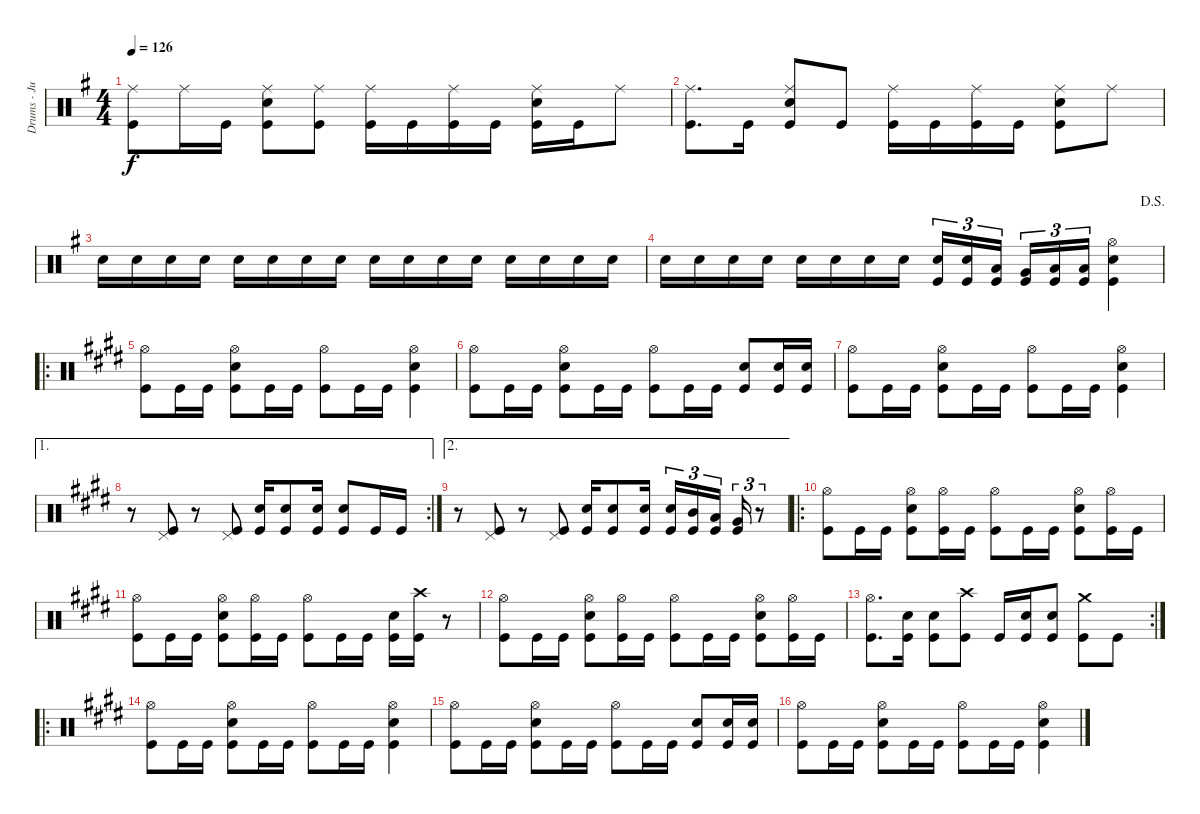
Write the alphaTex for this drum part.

\track ("Drums - Jukka" "Drums - Ju") {instrument percussion}
\staff {score}
\articulation defaults
\ts (4 4)
\tempo 126
\clef neutral
\ks eminor
("Kick (hit)" "Ride (middle)").8{dy f} "Ride (middle)".16 "Kick (hit)".16 ("Kick (hit)" "Snare (hit) 2" "Ride (middle)").8 ("Kick (hit)" "Ride (middle)").8 ("Kick (hit)" "Ride (middle)").16 "Kick (hit)".16 ("Kick (hit)" "Ride (middle)").16 "Kick (hit)".16 ("Kick (hit)" "Snare (hit) 2" "Ride (middle)").16 "Kick (hit)".16 "Ride (middle)".8 |
("Kick (hit)" "Ride (middle)").8{d} "Kick (hit)".16 ("Kick (hit)" "Snare (hit) 2" "Ride (middle)").8 "Kick (hit)".8 ("Kick (hit)" "Ride (middle)").16 "Kick (hit)".16 ("Kick (hit)" "Ride (middle)").16 "Kick (hit)".16 ("Kick (hit)" "Snare (hit) 2" "Ride (middle)").8 "Ride (middle)".8 |
"Snare (hit) 2".16 "Snare (hit) 2".16 "Snare (hit) 2".16 "Snare (hit) 2".16 "Snare (hit) 2".16 "Snare (hit) 2".16 "Snare (hit) 2".16 "Snare (hit) 2".16 "Snare (hit) 2".16 "Snare (hit) 2".16 "Snare (hit) 2".16 "Snare (hit) 2".16 "Snare (hit) 2".16 "Snare (hit) 2".16 "Snare (hit) 2".16 "Snare (hit) 2".16 |
\jump dalsegno "Snare (hit) 2".16 "Snare (hit) 2".16 "Snare (hit) 2".16 "Snare (hit) 2".16 "Snare (hit) 2".16 "Snare (hit) 2".16 "Snare (hit) 2".16 "Snare (hit) 2".16
("Kick (hit)" "Snare (hit) 2").16{tu (3 2)} ("Kick (hit)" "Snare (hit) 2").16{tu (3 2)} ("Kick (hit)" "Low Tom (hit)").16{tu (3 2) beam splitsecondary} ("Kick (hit)" "Very Low Tom (hit)").16{tu (3 2)} ("Kick (hit)" "Low Floor Tom (hit)").16{tu (3 2)} ("Kick (hit)" "Low Floor Tom (hit)").16{tu (3 2)} ("Snare (hit) 2" "Hi-Hat (open)" "Kick (hit)").4 |
\ro
\ks c#minor
("Kick (hit)" "Hi-Hat (open)").8 "Kick (hit)".16 "Kick (hit)".16 ("Kick (hit)" "Snare (hit) 2" "Hi-Hat (open)").8 "Kick (hit)".16 "Kick (hit)".16 ("Kick (hit)" "Hi-Hat (open)").8 "Kick (hit)".16 "Kick (hit)".16 ("Kick (hit)" "Snare (hit) 2" "Hi-Hat (open)").4 |
("Kick (hit)" "Hi-Hat (open)").8 "Kick (hit)".16 "Kick (hit)".16 ("Kick (hit)" "Snare (hit) 2" "Hi-Hat (open)").8 "Kick (hit)".16 "Kick (hit)".16 ("Kick (hit)" "Hi-Hat (open)").8 "Kick (hit)".16 "Kick (hit)".16 ("Kick (hit)" "Snare (hit) 2").8 ("Kick (hit)" "Snare (hit) 2").16 ("Kick (hit)" "Snare (hit) 2").16 |
("Kick (hit)" "Hi-Hat (open)").8 "Kick (hit)".16 "Kick (hit)".16 ("Kick (hit)" "Snare (hit) 2" "Hi-Hat (open)").8 "Kick (hit)".16 "Kick (hit)".16 ("Kick (hit)" "Hi-Hat (open)").8 "Kick (hit)".16 "Kick (hit)".16 ("Kick (hit)" "Snare (hit) 2" "Hi-Hat (open)").4 |
\ae 1
\rc 2
r.8 ("Kick (hit)" "Pedal Hi-Hat (hit)").8 r.8 ("Kick (hit)" "Pedal Hi-Hat (hit)").8 ("Kick (hit)" "Snare (hit) 2").16 ("Kick (hit)" "Snare (hit) 2").8 ("Kick (hit)" "Snare (hit) 2").16 ("Kick (hit)" "Snare (hit) 2").8 "Kick (hit)".16 "Kick (hit)".16 |
\ae 2
r.8 ("Kick (hit)" "Pedal Hi-Hat (hit)").8 r.8 ("Kick (hit)" "Pedal Hi-Hat (hit)").8 ("Kick (hit)" "Snare (hit) 2").16 ("Kick (hit)" "Snare (hit) 2").8 ("Kick (hit)" "Snare (hit) 2").16 ("Kick (hit)" "Snare (hit) 2").16{tu (3 2)} ("Kick (hit)" "Mid Tom (hit)").16{tu (3 2)} ("Kick (hit)" "Low Tom (hit)").16{tu (3 2) beam splitsecondary} ("Kick (hit)" "Very Low Tom (hit)").16{tu (3 2)} r.8{tu (3 2)} |
\ro
("Hi-Hat (open)" "Kick (hit)").8 "Kick (hit)".16 "Kick (hit)".16 ("Hi-Hat (open)" "Snare (hit) 2" "Kick (hit)").8 ("Hi-Hat (open)" "Kick (hit)").16 "Kick (hit)".16 ("Hi-Hat (open)" "Kick (hit)").8 "Kick (hit)".16 "Kick (hit)".16 ("Hi-Hat (open)" "Snare (hit) 2" "Kick (hit)").8 ("Hi-Hat (open)" "Kick (hit)").16 "Kick (hit)".16 |
("Hi-Hat (open)" "Kick (hit)").8 "Kick (hit)".16 "Kick (hit)".16 ("Hi-Hat (open)" "Snare (hit) 2" "Kick (hit)").8 ("Hi-Hat (open)" "Kick (hit)").16 "Kick (hit)".16 ("Hi-Hat (open)" "Kick (hit)").8 "Kick (hit)".16 "Kick (hit)".16 ("Snare (hit) 2" "Kick (hit)").16 ("Crash high (hit)" "Kick (hit)").16 r.8 |
("Hi-Hat (open)" "Kick (hit)").8 "Kick (hit)".16 "Kick (hit)".16 ("Hi-Hat (open)" "Snare (hit) 2" "Kick (hit)").8 ("Hi-Hat (open)" "Kick (hit)").16 "Kick (hit)".16 ("Hi-Hat (open)" "Kick (hit)").8 "Kick (hit)".16 "Kick (hit)".16 ("Hi-Hat (open)" "Snare (hit) 2" "Kick (hit)").8 ("Hi-Hat (open)" "Kick (hit)").16 "Kick (hit)".16 |
\rc 2
("Kick (hit)" "Hi-Hat (open)").8{d} ("Kick (hit)" "Snare (hit) 2").16 ("Kick (hit)" "Snare (hit) 2").8 ("Kick (hit)" "Crash high (hit)").8 "Kick (hit)".16 ("Kick (hit)" "Snare (hit) 2").16 ("Kick (hit)" "Snare (hit) 2").8 ("Kick (hit)" "Crash medium (hit)").8 "Kick (hit)".8 |
\ro
("Kick (hit)" "Hi-Hat (open)").8 "Kick (hit)".16 "Kick (hit)".16 ("Kick (hit)" "Snare (hit) 2" "Hi-Hat (open)").8 "Kick (hit)".16 "Kick (hit)".16 ("Kick (hit)" "Hi-Hat (open)").8 "Kick (hit)".16 "Kick (hit)".16 ("Kick (hit)" "Snare (hit) 2" "Hi-Hat (open)").4 |
("Kick (hit)" "Hi-Hat (open)").8 "Kick (hit)".16 "Kick (hit)".16 ("Kick (hit)" "Snare (hit) 2" "Hi-Hat (open)").8 "Kick (hit)".16 "Kick (hit)".16 ("Kick (hit)" "Hi-Hat (open)").8 "Kick (hit)".16 "Kick (hit)".16 ("Kick (hit)" "Snare (hit) 2").8 ("Kick (hit)" "Snare (hit) 2").16 ("Kick (hit)" "Snare (hit) 2").16 |
("Kick (hit)" "Hi-Hat (open)").8 "Kick (hit)".16 "Kick (hit)".16 ("Kick (hit)" "Snare (hit) 2" "Hi-Hat (open)").8 "Kick (hit)".16 "Kick (hit)".16 ("Kick (hit)" "Hi-Hat (open)").8 "Kick (hit)".16 "Kick (hit)".16 ("Kick (hit)" "Snare (hit) 2" "Hi-Hat (open)").4
